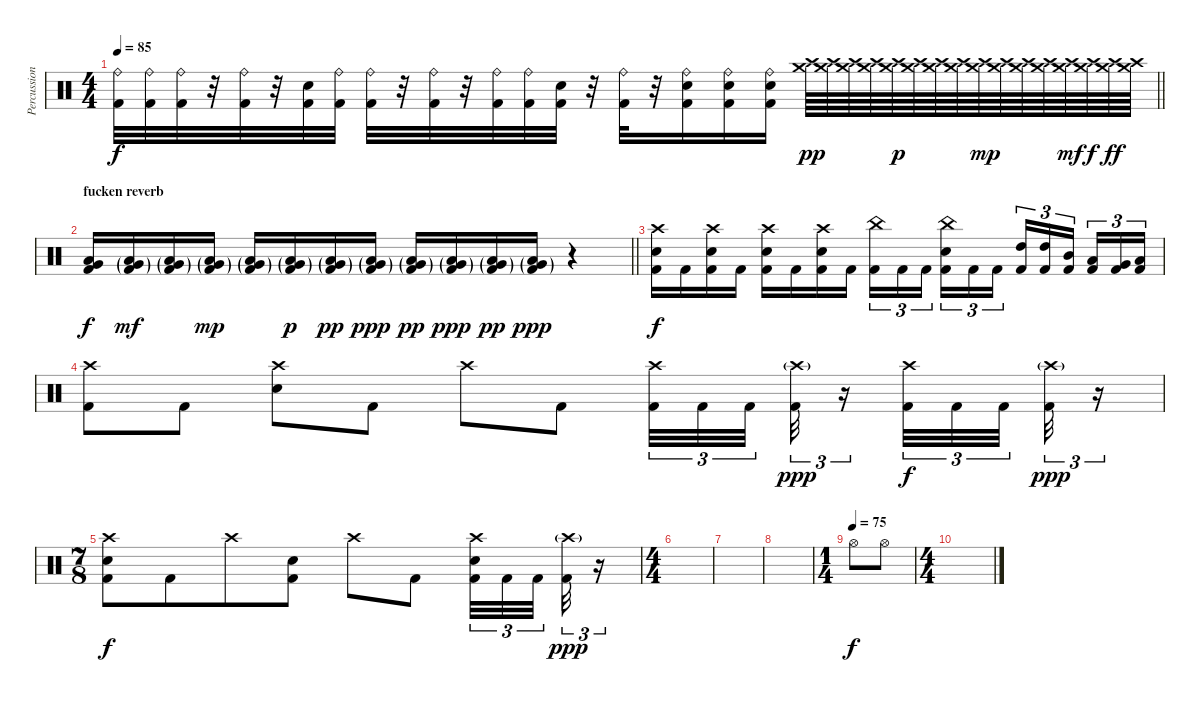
\track ("Percussion" "Percussion") {instrument percussion}
\staff {score}
\articulation defaults
\ts (4 4)
\tempo 85
\clef neutral
\barLineRight lightlight
\ks c
("Kick (hit) 2" "Ride (bell)").32{dy f} ("Kick (hit) 2" "Ride (bell)").32 ("Kick (hit) 2" "Ride (bell)").32 r.32 ("Kick (hit) 2" "Ride (bell)").32 r.32 ("Kick (hit) 2" "Snare (hit) 2").32 ("Kick (hit) 2" "Ride (bell)").32 ("Kick (hit) 2" "Ride (bell)").32 r.32 ("Kick (hit) 2" "Ride (bell)").32 r.32 ("Kick (hit) 2" "Ride (bell)").32 ("Kick (hit) 2" "Ride (bell)").32 ("Kick (hit) 2" "Snare (hit) 2").32 r.32 ("Kick (hit) 2" "Ride (bell)").32 r.32 ("Kick (hit) 2" "Snare (hit) 2" "Ride (bell)").16 ("Kick (hit) 2" "Snare (hit) 2" "Ride (bell)").16 ("Kick (hit) 2" "Snare (hit) 2" "Ride (bell)").16 ("Crash high (hit)" "Crash medium (hit)").64{dy pp} ("Crash high (hit)" "Crash medium (hit)").64 ("Crash high (hit)" "Crash medium (hit)").64 ("Crash high (hit)" "Crash medium (hit)").64 ("Crash high (hit)" "Crash medium (hit)").64{dy p} ("Crash high (hit)" "Crash medium (hit)").64 ("Crash high (hit)" "Crash medium (hit)").64 ("Crash high (hit)" "Crash medium (hit)").64 ("Crash high (hit)" "Crash medium (hit)").64{dy mp} ("Crash high (hit)" "Crash medium (hit)").64 ("Crash high (hit)" "Crash medium (hit)").64 ("Crash high (hit)" "Crash medium (hit)").64 ("Crash high (hit)" "Crash medium (hit)").64{dy mf} ("Crash high (hit)" "Crash medium (hit)").64{dy f} ("Crash high (hit)" "Crash medium (hit)").64{dy ff} ("Crash high (hit)" "Crash medium (hit)").64 |
\section ("" "fucken reverb")
\barLineRight lightlight
("Kick (hit) 2" "Low Floor Tom (hit)" "Very Low Tom (hit)").16{dy f} ("Kick (hit) 2"{g} "Low Floor Tom (hit)"{g} "Very Low Tom (hit)"{g}).16{dy mf} ("Kick (hit) 2"{g} "Low Floor Tom (hit)"{g} "Very Low Tom (hit)"{g}).16 ("Kick (hit) 2"{g} "Low Floor Tom (hit)"{g} "Very Low Tom (hit)"{g}).16{dy mp} ("Kick (hit) 2"{g} "Low Floor Tom (hit)"{g} "Very Low Tom (hit)"{g}).16 ("Kick (hit) 2"{g} "Low Floor Tom (hit)"{g} "Very Low Tom (hit)"{g}).16{dy p} ("Kick (hit) 2"{g} "Low Floor Tom (hit)"{g} "Very Low Tom (hit)"{g}).16{dy pp} ("Kick (hit) 2"{g} "Low Floor Tom (hit)"{g} "Very Low Tom (hit)"{g}).16{dy ppp} ("Kick (hit) 2"{g} "Low Floor Tom (hit)"{g} "Very Low Tom (hit)"{g}).16{dy pp} ("Kick (hit) 2"{g} "Low Floor Tom (hit)"{g} "Very Low Tom (hit)"{g}).16{dy ppp} ("Kick (hit) 2"{g} "Low Floor Tom (hit)"{g} "Very Low Tom (hit)"{g}).16{dy pp} ("Kick (hit) 2"{g} "Low Floor Tom (hit)"{g} "Very Low Tom (hit)"{g}).16{dy ppp} r.4 |
("Crash high (hit)" "Snare (hit) 2" "Kick (hit) 2").16{dy f} "Kick (hit) 2".16 ("Crash high (hit)" "Snare (hit) 2" "Kick (hit) 2").16 "Kick (hit) 2".16 ("Crash high (hit)" "Snare (hit) 2" "Kick (hit) 2").16 "Kick (hit) 2".16 ("Crash high (hit)" "Snare (hit) 2" "Kick (hit) 2").16 "Kick (hit) 2".16 ("China (hit)" "Kick (hit) 2").16{tu (3 2)} "Kick (hit) 2".16{tu (3 2)} "Kick (hit) 2".16{tu (3 2) beam splitsecondary} ("China (hit)" "Snare (hit) 2" "Kick (hit) 2").16{tu (3 2)} "Kick (hit) 2".16{tu (3 2)} "Kick (hit) 2".16{tu (3 2)} ("High Tom (hit)" "Kick (hit) 2").16{tu (3 2)} ("High Tom (hit)" "Kick (hit) 2").16{tu (3 2)} ("Mid Tom (hit)" "Kick (hit) 2").16{tu (3 2) beam splitsecondary} ("Low Tom (hit)" "Kick (hit) 2").16{tu (3 2)} ("Very Low Tom (hit)" "Kick (hit) 2").16{tu (3 2)} ("Low Floor Tom (hit)" "Kick (hit) 2").16{tu (3 2)} |
("Crash high (hit)" "Kick (hit) 2").8 "Kick (hit) 2".8 ("Crash high (hit)" "Snare (hit) 2").8 "Kick (hit) 2".8 "Crash high (hit)".8 "Kick (hit) 2".8 ("Crash high (hit)" "Kick (hit) 2").32{tu (3 2)} "Kick (hit) 2".32{tu (3 2)} "Kick (hit) 2".32{tu (3 2) beam splitsecondary} ("Crash high (hit)"{g} "Kick (hit) 2").32{tu (3 2) dy ppp} r.16{tu (3 2)} ("Crash high (hit)" "Kick (hit) 2").32{tu (3 2) dy f} "Kick (hit) 2".32{tu (3 2)} "Kick (hit) 2".32{tu (3 2) beam splitsecondary} ("Crash high (hit)"{g} "Kick (hit) 2").32{tu (3 2) dy ppp} r.16{tu (3 2)} |
\ts (7 8)
("Crash high (hit)" "Snare (hit) 2" "Kick (hit) 2").8{dy f} "Kick (hit) 2".8 "Crash high (hit)".8 ("Snare (hit) 2" "Kick (hit) 2").8 "Crash high (hit)".8 "Kick (hit) 2".8 ("Crash high (hit)" "Snare (hit) 2" "Kick (hit) 2").32{tu (3 2)} "Kick (hit) 2".32{tu (3 2)} "Kick (hit) 2".32{tu (3 2) beam splitsecondary} ("Crash high (hit)"{g} "Kick (hit) 2").32{tu (3 2) dy ppp} r.16{tu (3 2)} |
\ts (4 4)
|
|
|
\ts (1 4)
\tempo (75)
"Hi-Hat (open)".8{dy f} "Hi-Hat (open)".8 |
\ts (4 4)
